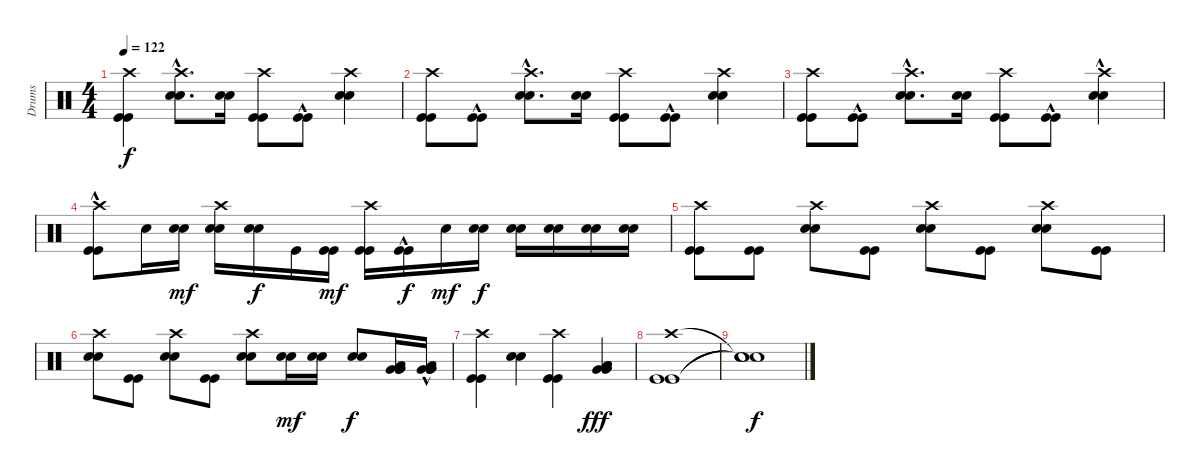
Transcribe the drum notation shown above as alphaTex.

\track ("Drums" "Drums") {instrument percussion}
\staff {score}
\articulation defaults
\ts (4 4)
\tempo 122
\clef neutral
\ks c
("Kick (hit)" "Kick (hit)" "Crash high (hit)").4{dy f} ("Snare (hit) 2"{hac} "Snare (hit) 2"{hac} "Crash high (hit)").8{d} ("Snare (hit) 2" "Snare (hit) 2").16 ("Kick (hit)" "Kick (hit)" "Crash high (hit)").8 ("Kick (hit)"{hac} "Kick (hit)"{hac}).8 ("Snare (hit) 2" "Snare (hit) 2" "Crash high (hit)").4 |
("Kick (hit)" "Kick (hit)" "Crash high (hit)").8 ("Kick (hit)"{hac} "Kick (hit)"{hac}).8 ("Snare (hit) 2"{hac} "Snare (hit) 2"{hac} "Crash high (hit)").8{d} ("Snare (hit) 2" "Snare (hit) 2").16 ("Kick (hit)" "Kick (hit)" "Crash high (hit)").8 ("Kick (hit)"{hac} "Kick (hit)"{hac}).8 ("Snare (hit) 2" "Snare (hit) 2" "Crash high (hit)").4 |
("Kick (hit)" "Kick (hit)" "Crash high (hit)").8 ("Kick (hit)"{hac} "Kick (hit)"{hac}).8 ("Snare (hit) 2"{hac} "Snare (hit) 2"{hac} "Crash high (hit)").8{d} ("Snare (hit) 2" "Snare (hit) 2").16 ("Kick (hit)" "Kick (hit)" "Crash high (hit)").8 ("Kick (hit)"{hac} "Kick (hit)"{hac}).8 ("Snare (hit) 2"{hac} "Snare (hit) 2"{hac} "Crash high (hit)").4 |
("Kick (hit)"{hac} "Kick (hit)"{hac} "Crash high (hit)").8 "Snare (hit) 2".16 ("Snare (hit) 2" "Snare (hit) 2").16{dy mf} ("Snare (hit) 2" "Snare (hit) 2" "Crash high (hit)").16 ("Snare (hit) 2" "Snare (hit) 2").16{dy f} "Kick (hit)".16 ("Kick (hit)" "Kick (hit)").16{dy mf} ("Kick (hit)" "Kick (hit)" "Crash high (hit)").16 ("Kick (hit)"{hac} "Kick (hit)"{hac}).16{dy f} "Snare (hit) 2".16{dy mf} ("Snare (hit) 2" "Snare (hit) 2").16{dy f} ("Snare (hit) 2" "Snare (hit) 2").16 ("Snare (hit) 2" "Snare (hit) 2").16 ("Snare (hit) 2" "Snare (hit) 2").16 ("Snare (hit) 2" "Snare (hit) 2").16 |
("Kick (hit)" "Kick (hit)" "Crash high (hit)").8 ("Kick (hit)" "Kick (hit)").8 ("Snare (hit) 2" "Snare (hit) 2" "Crash high (hit)").8 ("Kick (hit)" "Kick (hit)").8 ("Snare (hit) 2" "Snare (hit) 2" "Crash high (hit)").8 ("Kick (hit)" "Kick (hit)").8 ("Snare (hit) 2" "Snare (hit) 2" "Crash high (hit)").8 ("Kick (hit)" "Kick (hit)").8 |
("Snare (hit) 2" "Snare (hit) 2" "Crash high (hit)").8 ("Kick (hit)" "Kick (hit)").8 ("Snare (hit) 2" "Snare (hit) 2" "Crash high (hit)").8 ("Kick (hit)" "Kick (hit)").8 ("Snare (hit) 2" "Snare (hit) 2" "Crash high (hit)").8 ("Snare (hit) 2" "Snare (hit) 2").16{dy mf} ("Snare (hit) 2" "Snare (hit) 2").16 ("Snare (hit) 2" "Snare (hit) 2").8{dy f} ("Low Floor Tom (hit)" "Very Low Tom (hit)" "Very Low Tom (hit)" "Very Low Tom (hit)").16 ("Low Floor Tom (hit)"{hac} "Very Low Tom (hit)"{hac} "Very Low Tom (hit)"{hac} "Very Low Tom (hit)"{hac}).16 |
("Kick (hit)" "Kick (hit)" "Crash high (hit)").4 ("Snare (hit) 2" "Snare (hit) 2").4 ("Kick (hit)" "Kick (hit)" "Crash high (hit)").4 ("Low Floor Tom (hit)" "Low Floor Tom (hit)" "Very Low Tom (hit)" "Very Low Tom (hit)").4{dy fff} |
("Kick (hit)" "Kick (hit)" "Crash high (hit)").1 |
("Snare (hit)"{t} "Snare (hit)"{t} "Snare (hit)"{t}).1{dy f}
